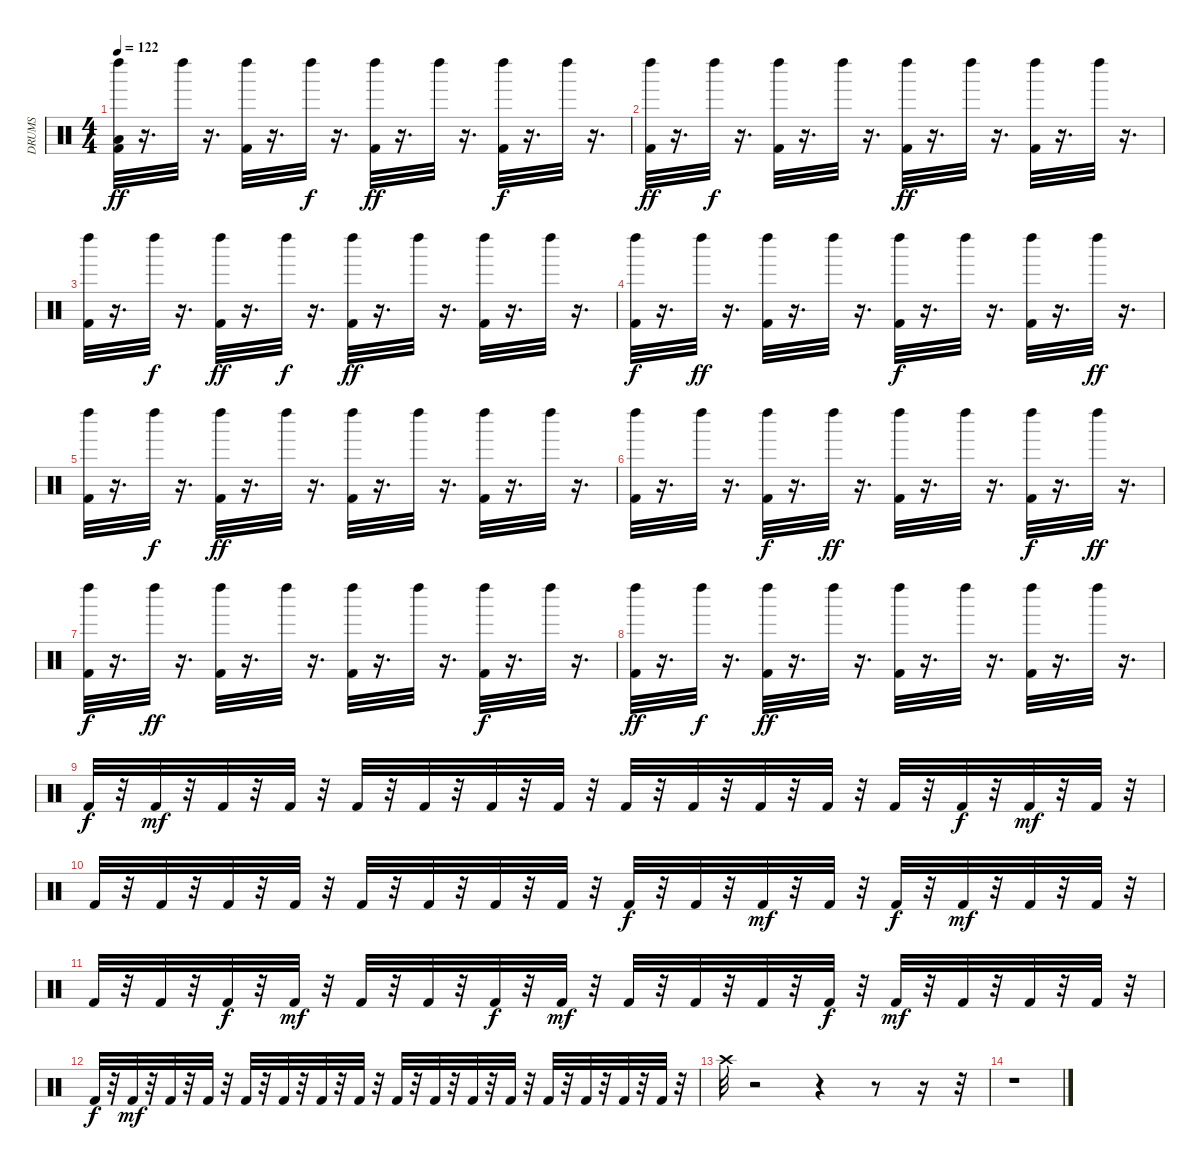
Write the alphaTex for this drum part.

\track ("DRUMS" "DRUMS") {instrument percussion}
\staff {score}
\articulation defaults
\ts (4 4)
\tempo 122
\clef neutral
\ks c
("Low Floor Tom (hit)" "Left Maraca (hit)" "Kick (hit) 2").32{dy ff} r.16{d} "Left Maraca (hit)".32 r.16{d} ("Left Maraca (hit)" "Kick (hit) 2").32 r.16{d} "Left Maraca (hit)".32{dy f} r.16{d} ("Left Maraca (hit)" "Kick (hit) 2").32{dy ff} r.16{d} "Left Maraca (hit)".32 r.16{d} ("Left Maraca (hit)" "Kick (hit) 2").32{dy f} r.16{d} "Left Maraca (hit)".32 r.16{d} |
("Left Maraca (hit)" "Kick (hit) 2").32{dy ff} r.16{d} "Left Maraca (hit)".32{dy f} r.16{d} ("Left Maraca (hit)" "Kick (hit) 2").32 r.16{d} "Left Maraca (hit)".32 r.16{d} ("Left Maraca (hit)" "Kick (hit) 2").32{dy ff} r.16{d} "Left Maraca (hit)".32 r.16{d} ("Left Maraca (hit)" "Kick (hit) 2").32 r.16{d} "Left Maraca (hit)".32 r.16{d} |
("Left Maraca (hit)" "Kick (hit) 2").32 r.16{d} "Left Maraca (hit)".32{dy f} r.16{d} ("Left Maraca (hit)" "Kick (hit) 2").32{dy ff} r.16{d} "Left Maraca (hit)".32{dy f} r.16{d} ("Left Maraca (hit)" "Kick (hit) 2").32{dy ff} r.16{d} "Left Maraca (hit)".32 r.16{d} ("Left Maraca (hit)" "Kick (hit) 2").32 r.16{d} "Left Maraca (hit)".32 r.16{d} |
("Left Maraca (hit)" "Kick (hit) 2").32{dy f} r.16{d} "Left Maraca (hit)".32{dy ff} r.16{d} ("Left Maraca (hit)" "Kick (hit) 2").32 r.16{d} "Left Maraca (hit)".32 r.16{d} ("Left Maraca (hit)" "Kick (hit) 2").32{dy f} r.16{d} "Left Maraca (hit)".32 r.16{d} ("Left Maraca (hit)" "Kick (hit) 2").32 r.16{d} "Left Maraca (hit)".32{dy ff} r.16{d} |
("Left Maraca (hit)" "Kick (hit) 2").32 r.16{d} "Left Maraca (hit)".32{dy f} r.16{d} ("Left Maraca (hit)" "Kick (hit) 2").32{dy ff} r.16{d} "Left Maraca (hit)".32 r.16{d} ("Left Maraca (hit)" "Kick (hit) 2").32 r.16{d} "Left Maraca (hit)".32 r.16{d} ("Left Maraca (hit)" "Kick (hit) 2").32 r.16{d} "Left Maraca (hit)".32 r.16{d} |
("Left Maraca (hit)" "Kick (hit) 2").32 r.16{d} "Left Maraca (hit)".32 r.16{d} ("Left Maraca (hit)" "Kick (hit) 2").32{dy f} r.16{d} "Left Maraca (hit)".32{dy ff} r.16{d} ("Left Maraca (hit)" "Kick (hit) 2").32 r.16{d} "Left Maraca (hit)".32 r.16{d} ("Left Maraca (hit)" "Kick (hit) 2").32{dy f} r.16{d} "Left Maraca (hit)".32{dy ff} r.16{d} |
("Left Maraca (hit)" "Kick (hit) 2").32{dy f} r.16{d} "Left Maraca (hit)".32{dy ff} r.16{d} ("Left Maraca (hit)" "Kick (hit) 2").32 r.16{d} "Left Maraca (hit)".32 r.16{d} ("Left Maraca (hit)" "Kick (hit) 2").32 r.16{d} "Left Maraca (hit)".32 r.16{d} ("Left Maraca (hit)" "Kick (hit) 2").32{dy f} r.16{d} "Left Maraca (hit)".32 r.16{d} |
("Left Maraca (hit)" "Kick (hit) 2").32{dy ff} r.16{d} "Left Maraca (hit)".32{dy f} r.16{d} ("Left Maraca (hit)" "Kick (hit) 2").32{dy ff} r.16{d} "Left Maraca (hit)".32 r.16{d} ("Left Maraca (hit)" "Kick (hit) 2").32 r.16{d} "Left Maraca (hit)".32 r.16{d} ("Left Maraca (hit)" "Kick (hit) 2").32 r.16{d} "Left Maraca (hit)".32 r.16{d} |
"Kick (hit) 2".32{dy f} r.32 "Kick (hit) 2".32{dy mf} r.32 "Kick (hit) 2".32 r.32 "Kick (hit) 2".32 r.32 "Kick (hit) 2".32 r.32 "Kick (hit) 2".32 r.32 "Kick (hit) 2".32 r.32 "Kick (hit) 2".32 r.32 "Kick (hit) 2".32 r.32 "Kick (hit) 2".32 r.32 "Kick (hit) 2".32 r.32 "Kick (hit) 2".32 r.32 "Kick (hit) 2".32 r.32 "Kick (hit) 2".32{dy f} r.32 "Kick (hit) 2".32{dy mf} r.32 "Kick (hit) 2".32 r.32 |
"Kick (hit) 2".32 r.32 "Kick (hit) 2".32 r.32 "Kick (hit) 2".32 r.32 "Kick (hit) 2".32 r.32 "Kick (hit) 2".32 r.32 "Kick (hit) 2".32 r.32 "Kick (hit) 2".32 r.32 "Kick (hit) 2".32 r.32 "Kick (hit) 2".32{dy f} r.32 "Kick (hit) 2".32 r.32 "Kick (hit) 2".32{dy mf} r.32 "Kick (hit) 2".32 r.32 "Kick (hit) 2".32{dy f} r.32 "Kick (hit) 2".32{dy mf} r.32 "Kick (hit) 2".32 r.32 "Kick (hit) 2".32 r.32 |
"Kick (hit) 2".32 r.32 "Kick (hit) 2".32 r.32 "Kick (hit) 2".32{dy f} r.32 "Kick (hit) 2".32{dy mf} r.32 "Kick (hit) 2".32 r.32 "Kick (hit) 2".32 r.32 "Kick (hit) 2".32{dy f} r.32 "Kick (hit) 2".32{dy mf} r.32 "Kick (hit) 2".32 r.32 "Kick (hit) 2".32 r.32 "Kick (hit) 2".32 r.32 "Kick (hit) 2".32{dy f} r.32 "Kick (hit) 2".32{dy mf} r.32 "Kick (hit) 2".32 r.32 "Kick (hit) 2".32 r.32 "Kick (hit) 2".32 r.32 |
"Kick (hit) 2".32{dy f} r.32 "Kick (hit) 2".32{dy mf} r.32 "Kick (hit) 2".32 r.32 "Kick (hit) 2".32 r.32 "Kick (hit) 2".32 r.32 "Kick (hit) 2".32 r.32 "Kick (hit) 2".32 r.32 "Kick (hit) 2".32 r.32 "Kick (hit) 2".32 r.32 "Kick (hit) 2".32 r.32 "Kick (hit) 2".32 r.32 "Kick (hit) 2".32 r.32 "Kick (hit) 2".32 r.32 "Kick (hit) 2".32 r.32 "Kick (hit) 2".32 r.32 "Kick (hit) 2".32 r.32 |
"Crash high (hit)".32 r.2 r.4 r.8 r.16 r.32 |
r.1
